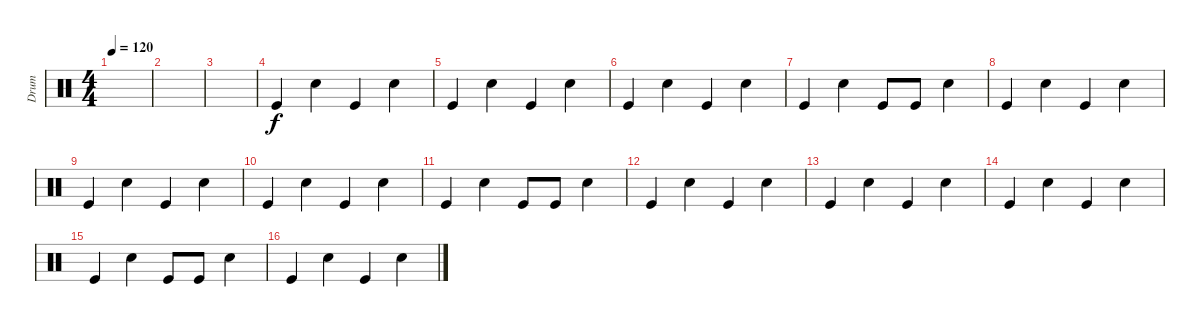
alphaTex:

\track ("Drum" "Drum") {instrument percussion}
\staff {score}
\articulation defaults
\ts (4 4)
\tempo 120
\clef neutral
\ks c
|
|
|
"Kick (hit)".4 "Snare (hit) 2".4 "Kick (hit)".4 "Snare (hit) 2".4 |
"Kick (hit)".4 "Snare (hit) 2".4 "Kick (hit)".4 "Snare (hit) 2".4 |
"Kick (hit)".4 "Snare (hit) 2".4 "Kick (hit)".4 "Snare (hit) 2".4 |
"Kick (hit)".4 "Snare (hit) 2".4 "Kick (hit)".8 "Kick (hit)".8 "Snare (hit) 2".4 |
"Kick (hit)".4 "Snare (hit) 2".4 "Kick (hit)".4 "Snare (hit) 2".4 |
"Kick (hit)".4 "Snare (hit) 2".4 "Kick (hit)".4 "Snare (hit) 2".4 |
"Kick (hit)".4 "Snare (hit) 2".4 "Kick (hit)".4 "Snare (hit) 2".4 |
"Kick (hit)".4 "Snare (hit) 2".4 "Kick (hit)".8 "Kick (hit)".8 "Snare (hit) 2".4 |
"Kick (hit)".4 "Snare (hit) 2".4 "Kick (hit)".4 "Snare (hit) 2".4 |
"Kick (hit)".4 "Snare (hit) 2".4 "Kick (hit)".4 "Snare (hit) 2".4 |
"Kick (hit)".4 "Snare (hit) 2".4 "Kick (hit)".4 "Snare (hit) 2".4 |
"Kick (hit)".4 "Snare (hit) 2".4 "Kick (hit)".8 "Kick (hit)".8 "Snare (hit) 2".4 |
"Kick (hit)".4 "Snare (hit) 2".4 "Kick (hit)".4 "Snare (hit) 2".4
